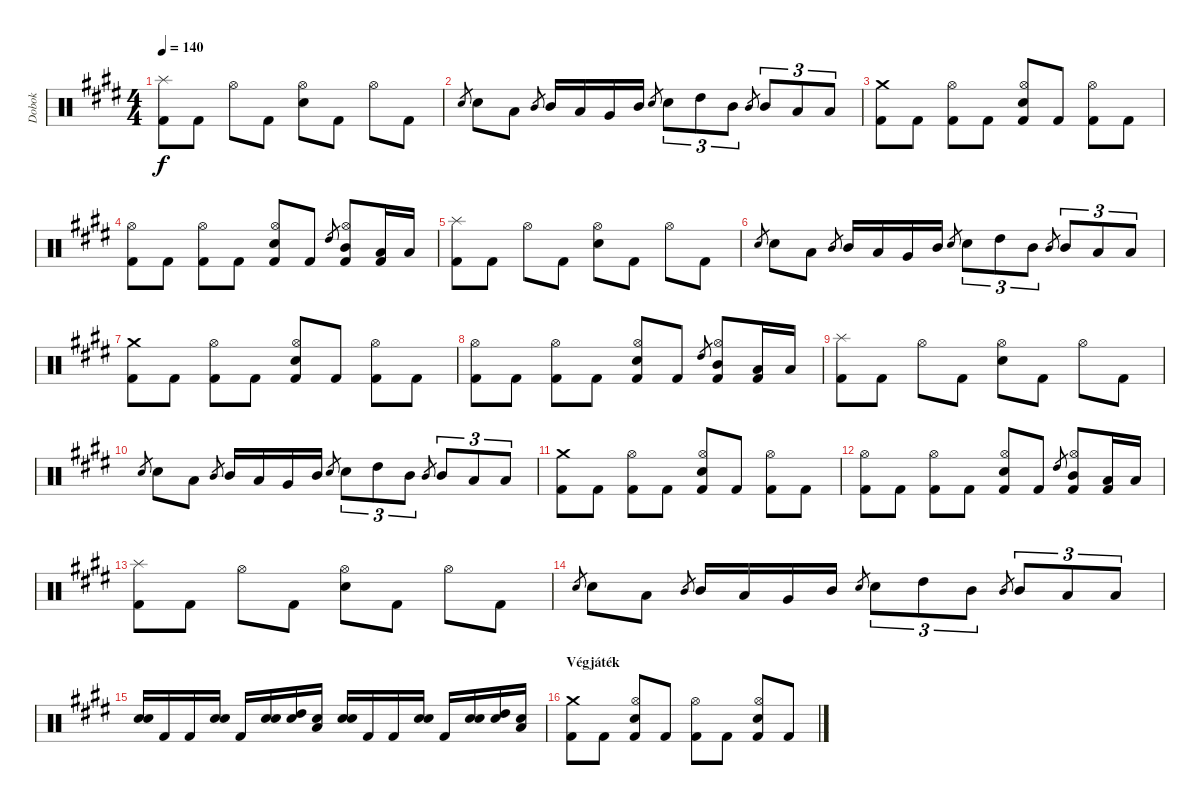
\track ("Dobok" "Dobok") {instrument percussion}
\staff {score}
\articulation defaults
\ts (4 4)
\tempo 140
\clef neutral
\ks c#minor
("Splash (hit)" "Kick (hit) 2").8{dy f} "Kick (hit) 2".8 "Hi-Hat (open)".8 "Kick (hit) 2".8 ("Hi-Hat (open)" "Snare (hit) 2").8 "Kick (hit) 2".8 "Hi-Hat (open)".8 "Kick (hit) 2".8 |
"Snare (hit) 2".8{gr} "Snare (hit) 2".8 "Low Tom (hit)".8 "Mid Tom (hit)".8{gr} "Mid Tom (hit)".16 "Low Tom (hit)".16 "Very Low Tom (hit)".16 "Mid Tom (hit)".16 "Snare (hit) 2".8{gr} "Snare (hit) 2".8{tu (3 2)} "High Tom (hit)".8{tu (3 2)} "Mid Tom (hit)".8{tu (3 2)} "Mid Tom (hit)".8{gr} "Mid Tom (hit)".8{tu (3 2)} "Low Tom (hit)".8{tu (3 2)} "Low Tom (hit)".8{tu (3 2)} |
("Crash medium (hit)" "Kick (hit) 2").8 "Kick (hit) 2".8 ("Hi-Hat (open)" "Kick (hit) 2").8 "Kick (hit) 2".8 ("Hi-Hat (open)" "Snare (hit) 2" "Kick (hit) 2").8 "Kick (hit) 2".8 ("Hi-Hat (open)" "Kick (hit) 2").8 "Kick (hit) 2".8 |
("Hi-Hat (open)" "Kick (hit) 2").8 "Kick (hit) 2".8 ("Hi-Hat (open)" "Kick (hit) 2").8 "Kick (hit) 2".8 ("Hi-Hat (open)" "Snare (hit) 2" "Kick (hit) 2").8 "Kick (hit) 2".8 "High Tom (hit)".8{gr} ("Hi-Hat (open)" "Mid Tom (hit)" "Kick (hit) 2").8 ("Low Tom (hit)" "Kick (hit) 2").16 "Low Tom (hit)".16 |
("Splash (hit)" "Kick (hit) 2").8 "Kick (hit) 2".8 "Hi-Hat (open)".8 "Kick (hit) 2".8 ("Hi-Hat (open)" "Snare (hit) 2").8 "Kick (hit) 2".8 "Hi-Hat (open)".8 "Kick (hit) 2".8 |
"Snare (hit) 2".8{gr} "Snare (hit) 2".8 "Low Tom (hit)".8 "Mid Tom (hit)".8{gr} "Mid Tom (hit)".16 "Low Tom (hit)".16 "Very Low Tom (hit)".16 "Mid Tom (hit)".16 "Snare (hit) 2".8{gr} "Snare (hit) 2".8{tu (3 2)} "High Tom (hit)".8{tu (3 2)} "Mid Tom (hit)".8{tu (3 2)} "Mid Tom (hit)".8{gr} "Mid Tom (hit)".8{tu (3 2)} "Low Tom (hit)".8{tu (3 2)} "Low Tom (hit)".8{tu (3 2)} |
("Crash medium (hit)" "Kick (hit) 2").8 "Kick (hit) 2".8 ("Hi-Hat (open)" "Kick (hit) 2").8 "Kick (hit) 2".8 ("Hi-Hat (open)" "Snare (hit) 2" "Kick (hit) 2").8 "Kick (hit) 2".8 ("Hi-Hat (open)" "Kick (hit) 2").8 "Kick (hit) 2".8 |
("Hi-Hat (open)" "Kick (hit) 2").8 "Kick (hit) 2".8 ("Hi-Hat (open)" "Kick (hit) 2").8 "Kick (hit) 2".8 ("Hi-Hat (open)" "Snare (hit) 2" "Kick (hit) 2").8 "Kick (hit) 2".8 "High Tom (hit)".8{gr} ("Hi-Hat (open)" "Mid Tom (hit)" "Kick (hit) 2").8 ("Low Tom (hit)" "Kick (hit) 2").16 "Low Tom (hit)".16 |
("Splash (hit)" "Kick (hit) 2").8 "Kick (hit) 2".8 "Hi-Hat (open)".8 "Kick (hit) 2".8 ("Hi-Hat (open)" "Snare (hit) 2").8 "Kick (hit) 2".8 "Hi-Hat (open)".8 "Kick (hit) 2".8 |
"Snare (hit) 2".8{gr} "Snare (hit) 2".8 "Low Tom (hit)".8 "Mid Tom (hit)".8{gr} "Mid Tom (hit)".16 "Low Tom (hit)".16 "Very Low Tom (hit)".16 "Mid Tom (hit)".16 "Snare (hit) 2".8{gr} "Snare (hit) 2".8{tu (3 2)} "High Tom (hit)".8{tu (3 2)} "Mid Tom (hit)".8{tu (3 2)} "Mid Tom (hit)".8{gr} "Mid Tom (hit)".8{tu (3 2)} "Low Tom (hit)".8{tu (3 2)} "Low Tom (hit)".8{tu (3 2)} |
("Crash medium (hit)" "Kick (hit) 2").8 "Kick (hit) 2".8 ("Hi-Hat (open)" "Kick (hit) 2").8 "Kick (hit) 2".8 ("Hi-Hat (open)" "Snare (hit) 2" "Kick (hit) 2").8 "Kick (hit) 2".8 ("Hi-Hat (open)" "Kick (hit) 2").8 "Kick (hit) 2".8 |
("Hi-Hat (open)" "Kick (hit) 2").8 "Kick (hit) 2".8 ("Hi-Hat (open)" "Kick (hit) 2").8 "Kick (hit) 2".8 ("Hi-Hat (open)" "Snare (hit) 2" "Kick (hit) 2").8 "Kick (hit) 2".8 "High Tom (hit)".8{gr} ("Hi-Hat (open)" "Mid Tom (hit)" "Kick (hit) 2").8 ("Low Tom (hit)" "Kick (hit) 2").16 "Low Tom (hit)".16 |
("Splash (hit)" "Kick (hit) 2").8 "Kick (hit) 2".8 "Hi-Hat (open)".8 "Kick (hit) 2".8 ("Hi-Hat (open)" "Snare (hit) 2").8 "Kick (hit) 2".8 "Hi-Hat (open)".8 "Kick (hit) 2".8 |
"Snare (hit) 2".8{gr} "Snare (hit) 2".8 "Low Tom (hit)".8 "Mid Tom (hit)".8{gr} "Mid Tom (hit)".16 "Low Tom (hit)".16 "Very Low Tom (hit)".16 "Mid Tom (hit)".16 "Snare (hit) 2".8{gr} "Snare (hit) 2".8{tu (3 2)} "High Tom (hit)".8{tu (3 2)} "Mid Tom (hit)".8{tu (3 2)} "Mid Tom (hit)".8{gr} "Mid Tom (hit)".8{tu (3 2)} "Low Tom (hit)".8{tu (3 2)} "Low Tom (hit)".8{tu (3 2)} |
("Snare (hit) 2" "Snare (hit) 2").16 "Kick (hit) 2".16 "Kick (hit) 2".16 ("Snare (hit) 2" "Snare (hit) 2").16 "Kick (hit) 2".16 ("Snare (hit) 2" "Snare (hit) 2").16 ("Snare (hit) 2" "High Tom (hit)").16 ("Snare (hit) 2" "Low Tom (hit)").16 ("Snare (hit) 2" "Snare (hit) 2").16 "Kick (hit) 2".16 "Kick (hit) 2".16 ("Snare (hit) 2" "Snare (hit) 2").16 "Kick (hit) 2".16 ("Snare (hit) 2" "Snare (hit) 2").16 ("Snare (hit) 2" "High Tom (hit)").16 ("Snare (hit) 2" "Low Tom (hit)").16 |
\section ("" "Végjáték")
("Crash medium (hit)" "Kick (hit) 2").8 "Kick (hit) 2".8 ("Hi-Hat (open)" "Snare (hit) 2" "Kick (hit) 2").8 "Kick (hit) 2".8 ("Hi-Hat (open)" "Kick (hit) 2").8 "Kick (hit) 2".8 ("Hi-Hat (open)" "Snare (hit) 2" "Kick (hit) 2").8 "Kick (hit) 2".8
